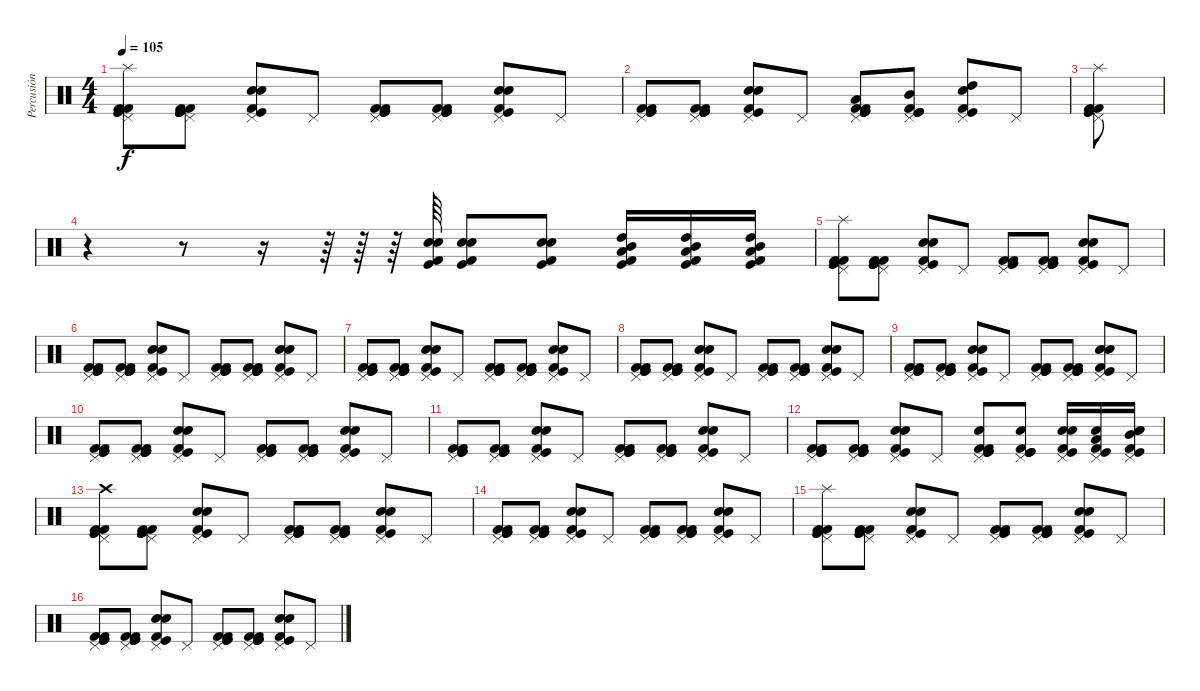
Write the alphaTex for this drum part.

\track ("Percusión" "Percusión") {instrument percussion}
\staff {score}
\articulation defaults
\ts (4 4)
\tempo 105
\clef neutral
\ks c
("Kick (hit) 2" "Kick (hit)" "Pedal Hi-Hat (hit)" "Splash (hit)" "Kick (hit) 2" "Kick (hit)").8{dy f} ("Kick (hit) 2" "Kick (hit)" "Pedal Hi-Hat (hit)" "Kick (hit) 2" "Kick (hit)" "Kick (hit)").8 ("Snare (hit) 2" "Pedal Hi-Hat (hit)" "Electric Snare (hit)" "Kick (hit)" "Kick (hit) 2").8 "Pedal Hi-Hat (hit)".8 ("Kick (hit) 2" "Kick (hit)" "Pedal Hi-Hat (hit)" "Kick (hit) 2" "Kick (hit)").8 ("Kick (hit) 2" "Kick (hit)" "Pedal Hi-Hat (hit)" "Kick (hit) 2" "Kick (hit)" "Kick (hit)").8 ("Snare (hit) 2" "Pedal Hi-Hat (hit)" "Electric Snare (hit)" "Kick (hit)" "Kick (hit) 2").8 "Pedal Hi-Hat (hit)".8 |
("Kick (hit) 2" "Kick (hit)" "Pedal Hi-Hat (hit)" "Kick (hit) 2" "Kick (hit)").8 ("Kick (hit) 2" "Kick (hit)" "Pedal Hi-Hat (hit)" "Kick (hit) 2" "Kick (hit)" "Kick (hit)").8 ("Snare (hit) 2" "Pedal Hi-Hat (hit)" "Electric Snare (hit)" "Kick (hit)" "Kick (hit) 2").8 "Pedal Hi-Hat (hit)".8 ("Kick (hit) 2" "Kick (hit)" "Pedal Hi-Hat (hit)" "Low Tom (hit)" "Kick (hit) 2" "Kick (hit)").8 ("Kick (hit) 2" "Kick (hit)" "Pedal Hi-Hat (hit)" "Mid Tom (hit)" "Kick (hit)" "Kick (hit)").8 ("Snare (hit) 2" "Pedal Hi-Hat (hit)" "High Tom (hit)" "Kick (hit)" "Kick (hit) 2").8 "Pedal Hi-Hat (hit)".8 |
("Kick (hit) 2" "Kick (hit)" "Pedal Hi-Hat (hit)" "Splash (hit)" "Kick (hit) 2" "Kick (hit)").8 |
r.4 r.8 r.16 r.64 r.64 r.64 ("Kick (hit) 2" "Kick (hit)" "Electric Snare (hit)" "Snare (hit) 2").64 ("Kick (hit) 2" "Kick (hit)" "Electric Snare (hit)" "Snare (hit) 2").8 ("Kick (hit) 2" "Kick (hit)" "Electric Snare (hit)" "Snare (hit) 2").8 ("Kick (hit) 2" "Kick (hit)" "High Tom (hit)" "Mid Tom (hit)" "Low Tom (hit)").16 ("Kick (hit) 2" "Kick (hit)" "High Tom (hit)" "Mid Tom (hit)" "Low Tom (hit)").16 ("Kick (hit) 2" "Kick (hit)" "High Tom (hit)" "Mid Tom (hit)" "Low Tom (hit)").16 |
("Kick (hit) 2" "Kick (hit)" "Pedal Hi-Hat (hit)" "Splash (hit)" "Kick (hit) 2" "Kick (hit)").8 ("Kick (hit) 2" "Kick (hit)" "Pedal Hi-Hat (hit)" "Kick (hit) 2" "Kick (hit)" "Kick (hit)").8 ("Snare (hit) 2" "Pedal Hi-Hat (hit)" "Electric Snare (hit)" "Kick (hit)" "Kick (hit) 2").8 "Pedal Hi-Hat (hit)".8 ("Kick (hit) 2" "Kick (hit)" "Pedal Hi-Hat (hit)" "Kick (hit) 2" "Kick (hit)").8 ("Kick (hit) 2" "Kick (hit)" "Pedal Hi-Hat (hit)" "Kick (hit) 2" "Kick (hit)" "Kick (hit)").8 ("Snare (hit) 2" "Pedal Hi-Hat (hit)" "Electric Snare (hit)" "Kick (hit)" "Kick (hit) 2").8 "Pedal Hi-Hat (hit)".8 |
("Kick (hit) 2" "Kick (hit)" "Pedal Hi-Hat (hit)" "Kick (hit) 2" "Kick (hit)").8 ("Kick (hit) 2" "Kick (hit)" "Pedal Hi-Hat (hit)" "Kick (hit) 2" "Kick (hit)" "Kick (hit)").8 ("Snare (hit) 2" "Pedal Hi-Hat (hit)" "Electric Snare (hit)" "Kick (hit)" "Kick (hit) 2").8 "Pedal Hi-Hat (hit)".8 ("Kick (hit) 2" "Kick (hit)" "Pedal Hi-Hat (hit)" "Kick (hit) 2" "Kick (hit)").8 ("Kick (hit) 2" "Kick (hit)" "Pedal Hi-Hat (hit)" "Kick (hit) 2" "Kick (hit)" "Kick (hit)").8 ("Snare (hit) 2" "Pedal Hi-Hat (hit)" "Electric Snare (hit)" "Kick (hit)" "Kick (hit) 2").8 "Pedal Hi-Hat (hit)".8 |
("Kick (hit) 2" "Kick (hit)" "Pedal Hi-Hat (hit)" "Kick (hit) 2" "Kick (hit)").8 ("Kick (hit) 2" "Kick (hit)" "Pedal Hi-Hat (hit)" "Kick (hit) 2" "Kick (hit)" "Kick (hit)").8 ("Snare (hit) 2" "Pedal Hi-Hat (hit)" "Electric Snare (hit)" "Kick (hit)" "Kick (hit) 2").8 "Pedal Hi-Hat (hit)".8 ("Kick (hit) 2" "Kick (hit)" "Pedal Hi-Hat (hit)" "Kick (hit) 2" "Kick (hit)").8 ("Kick (hit) 2" "Kick (hit)" "Pedal Hi-Hat (hit)" "Kick (hit) 2" "Kick (hit)" "Kick (hit)").8 ("Snare (hit) 2" "Pedal Hi-Hat (hit)" "Electric Snare (hit)" "Kick (hit)" "Kick (hit) 2").8 "Pedal Hi-Hat (hit)".8 |
("Kick (hit) 2" "Kick (hit)" "Pedal Hi-Hat (hit)" "Kick (hit) 2" "Kick (hit)").8 ("Kick (hit) 2" "Kick (hit)" "Pedal Hi-Hat (hit)" "Kick (hit) 2" "Kick (hit)" "Kick (hit)").8 ("Snare (hit) 2" "Pedal Hi-Hat (hit)" "Electric Snare (hit)" "Kick (hit)" "Kick (hit) 2").8 "Pedal Hi-Hat (hit)".8 ("Kick (hit) 2" "Kick (hit)" "Pedal Hi-Hat (hit)" "Kick (hit) 2" "Kick (hit)").8 ("Kick (hit) 2" "Kick (hit)" "Pedal Hi-Hat (hit)" "Kick (hit) 2" "Kick (hit)" "Kick (hit)").8 ("Snare (hit) 2" "Pedal Hi-Hat (hit)" "Electric Snare (hit)" "Kick (hit)" "Kick (hit) 2").8 "Pedal Hi-Hat (hit)".8 |
("Kick (hit) 2" "Kick (hit)" "Pedal Hi-Hat (hit)" "Kick (hit) 2" "Kick (hit)").8 ("Kick (hit) 2" "Kick (hit)" "Pedal Hi-Hat (hit)" "Kick (hit) 2" "Kick (hit)" "Kick (hit)").8 ("Snare (hit) 2" "Pedal Hi-Hat (hit)" "Electric Snare (hit)" "Kick (hit)" "Kick (hit) 2").8 "Pedal Hi-Hat (hit)".8 ("Kick (hit) 2" "Kick (hit)" "Pedal Hi-Hat (hit)" "Kick (hit) 2" "Kick (hit)").8 ("Kick (hit) 2" "Kick (hit)" "Pedal Hi-Hat (hit)" "Kick (hit) 2" "Kick (hit)" "Kick (hit)").8 ("Snare (hit) 2" "Pedal Hi-Hat (hit)" "Electric Snare (hit)" "Kick (hit)" "Kick (hit) 2").8 "Pedal Hi-Hat (hit)".8 |
("Kick (hit) 2" "Kick (hit)" "Pedal Hi-Hat (hit)" "Kick (hit) 2" "Kick (hit)").8 ("Kick (hit) 2" "Kick (hit)" "Pedal Hi-Hat (hit)" "Kick (hit) 2" "Kick (hit)" "Kick (hit)").8 ("Snare (hit) 2" "Pedal Hi-Hat (hit)" "Electric Snare (hit)" "Kick (hit)" "Kick (hit) 2").8 "Pedal Hi-Hat (hit)".8 ("Kick (hit) 2" "Kick (hit)" "Pedal Hi-Hat (hit)" "Kick (hit) 2" "Kick (hit)").8 ("Kick (hit) 2" "Kick (hit)" "Pedal Hi-Hat (hit)" "Kick (hit) 2" "Kick (hit)" "Kick (hit)").8 ("Snare (hit) 2" "Pedal Hi-Hat (hit)" "Electric Snare (hit)" "Kick (hit)" "Kick (hit) 2").8 "Pedal Hi-Hat (hit)".8 |
("Kick (hit) 2" "Kick (hit)" "Pedal Hi-Hat (hit)" "Kick (hit) 2" "Kick (hit)").8 ("Kick (hit) 2" "Kick (hit)" "Pedal Hi-Hat (hit)" "Kick (hit) 2" "Kick (hit)" "Kick (hit)").8 ("Snare (hit) 2" "Pedal Hi-Hat (hit)" "Electric Snare (hit)" "Kick (hit)" "Kick (hit) 2").8 "Pedal Hi-Hat (hit)".8 ("Kick (hit) 2" "Kick (hit)" "Pedal Hi-Hat (hit)" "Kick (hit) 2" "Kick (hit)").8 ("Kick (hit) 2" "Kick (hit)" "Pedal Hi-Hat (hit)" "Kick (hit) 2" "Kick (hit)" "Kick (hit)").8 ("Snare (hit) 2" "Pedal Hi-Hat (hit)" "Electric Snare (hit)" "Kick (hit)" "Kick (hit) 2").8 "Pedal Hi-Hat (hit)".8 |
("Kick (hit) 2" "Kick (hit)" "Pedal Hi-Hat (hit)" "Kick (hit) 2" "Kick (hit)").8 ("Kick (hit) 2" "Kick (hit)" "Pedal Hi-Hat (hit)" "Kick (hit) 2" "Kick (hit)" "Kick (hit)").8 ("Snare (hit) 2" "Pedal Hi-Hat (hit)" "Electric Snare (hit)" "Kick (hit)" "Kick (hit) 2").8 "Pedal Hi-Hat (hit)".8 ("Kick (hit) 2" "Kick (hit)" "Pedal Hi-Hat (hit)" "Snare (hit) 2" "Kick (hit) 2" "Kick (hit)").8 ("Kick (hit) 2" "Kick (hit)" "Pedal Hi-Hat (hit)" "Snare (hit) 2" "Kick (hit)" "Kick (hit)").8 ("Snare (hit) 2" "Pedal Hi-Hat (hit)" "Electric Snare (hit)" "Kick (hit)" "Kick (hit) 2").16 ("Low Tom (hit)" "Pedal Hi-Hat (hit)" "Electric Snare (hit)" "Kick (hit)" "Kick (hit) 2").16 ("Snare (hit) 2" "Mid Tom (hit)" "Pedal Hi-Hat (hit)" "Electric Snare (hit)" "Kick (hit)" "Kick (hit) 2").16 |
("Kick (hit) 2" "Kick (hit)" "Pedal Hi-Hat (hit)" "Crash high (hit)" "Kick (hit) 2" "Kick (hit)").8 ("Kick (hit) 2" "Kick (hit)" "Pedal Hi-Hat (hit)" "Kick (hit) 2" "Kick (hit)" "Kick (hit)").8 ("Snare (hit) 2" "Pedal Hi-Hat (hit)" "Electric Snare (hit)" "Kick (hit)" "Kick (hit) 2").8 "Pedal Hi-Hat (hit)".8 ("Kick (hit) 2" "Kick (hit)" "Pedal Hi-Hat (hit)" "Kick (hit) 2" "Kick (hit)").8 ("Kick (hit) 2" "Kick (hit)" "Pedal Hi-Hat (hit)" "Kick (hit) 2" "Kick (hit)" "Kick (hit)").8 ("Snare (hit) 2" "Pedal Hi-Hat (hit)" "Electric Snare (hit)" "Kick (hit)" "Kick (hit) 2").8 "Pedal Hi-Hat (hit)".8 |
("Kick (hit) 2" "Kick (hit)" "Pedal Hi-Hat (hit)" "Kick (hit) 2" "Kick (hit)").8 ("Kick (hit) 2" "Kick (hit)" "Pedal Hi-Hat (hit)" "Kick (hit) 2" "Kick (hit)" "Kick (hit)").8 ("Snare (hit) 2" "Pedal Hi-Hat (hit)" "Electric Snare (hit)" "Kick (hit)" "Kick (hit) 2").8 "Pedal Hi-Hat (hit)".8 ("Kick (hit) 2" "Kick (hit)" "Pedal Hi-Hat (hit)" "Kick (hit) 2" "Kick (hit)").8 ("Kick (hit) 2" "Kick (hit)" "Pedal Hi-Hat (hit)" "Kick (hit) 2" "Kick (hit)" "Kick (hit)").8 ("Snare (hit) 2" "Pedal Hi-Hat (hit)" "Electric Snare (hit)" "Kick (hit)" "Kick (hit) 2").8 "Pedal Hi-Hat (hit)".8 |
("Kick (hit) 2" "Kick (hit)" "Pedal Hi-Hat (hit)" "Splash (hit)" "Kick (hit) 2" "Kick (hit)").8 ("Kick (hit) 2" "Kick (hit)" "Pedal Hi-Hat (hit)" "Kick (hit) 2" "Kick (hit)" "Kick (hit)").8 ("Snare (hit) 2" "Pedal Hi-Hat (hit)" "Electric Snare (hit)" "Kick (hit)" "Kick (hit) 2").8 "Pedal Hi-Hat (hit)".8 ("Kick (hit) 2" "Kick (hit)" "Pedal Hi-Hat (hit)" "Kick (hit) 2" "Kick (hit)").8 ("Kick (hit) 2" "Kick (hit)" "Pedal Hi-Hat (hit)" "Kick (hit) 2" "Kick (hit)" "Kick (hit)").8 ("Snare (hit) 2" "Pedal Hi-Hat (hit)" "Electric Snare (hit)" "Kick (hit)" "Kick (hit) 2").8 "Pedal Hi-Hat (hit)".8 |
("Kick (hit) 2" "Kick (hit)" "Pedal Hi-Hat (hit)" "Kick (hit) 2" "Kick (hit)").8 ("Kick (hit) 2" "Kick (hit)" "Pedal Hi-Hat (hit)" "Kick (hit) 2" "Kick (hit)" "Kick (hit)").8 ("Snare (hit) 2" "Pedal Hi-Hat (hit)" "Electric Snare (hit)" "Kick (hit)" "Kick (hit) 2").8 "Pedal Hi-Hat (hit)".8 ("Kick (hit) 2" "Kick (hit)" "Pedal Hi-Hat (hit)" "Kick (hit) 2" "Kick (hit)").8 ("Kick (hit) 2" "Kick (hit)" "Pedal Hi-Hat (hit)" "Kick (hit) 2" "Kick (hit)" "Kick (hit)").8 ("Snare (hit) 2" "Pedal Hi-Hat (hit)" "Electric Snare (hit)" "Kick (hit)" "Kick (hit) 2").8 "Pedal Hi-Hat (hit)".8
